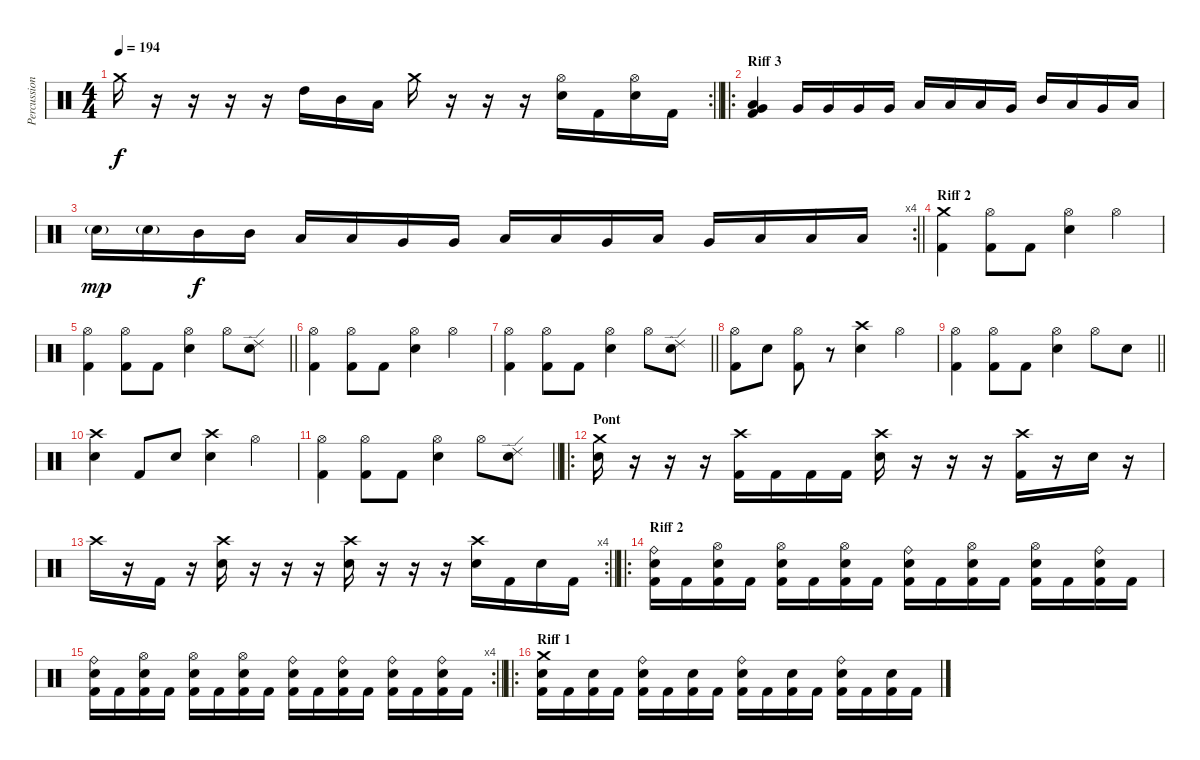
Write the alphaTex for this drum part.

\track ("Percussions" "Percussion") {instrument percussion}
\staff {score}
\articulation defaults
\rc 2
\ts (4 4)
\tempo 194
\clef neutral
\barLineRight lightlight
\ks c "Crash medium (hit)".16{dy f}
r.16 r.16 r.16 r.16 "High Tom (hit)".16 "Mid Tom (hit)".16 "Low Tom (hit)".16 "Crash medium (hit)".16 r.16 r.16 r.16 ("Hi-Hat (open)" "Electric Snare (hit)").16 "Kick (hit) 2".16 ("Hi-Hat (open)" "Electric Snare (hit)").16 "Kick (hit) 2".16 |
\ro
\section ("" "Riff 3")
("Very Low Tom (hit)" "Low Tom (hit)" "Kick (hit) 2").4 "Very Low Tom (hit)".16 "Very Low Tom (hit)".16 "Very Low Tom (hit)".16 "Very Low Tom (hit)".16 "Low Floor Tom (hit)".16 "Low Floor Tom (hit)".16 "Low Floor Tom (hit)".16 "Very Low Tom (hit)".16 "Mid Tom (hit)".16 "Low Tom (hit)".16 "Very Low Tom (hit)".16 "Low Floor Tom (hit)".16 |
\rc 4
\barLineRight lightlight "Electric Snare (hit)"{g}.16{dy mp} "Electric Snare (hit)"{g}.16 "Mid Tom (hit)".16{dy f} "Mid Tom (hit)".16 "Low Tom (hit)".16 "Low Tom (hit)".16 "Very Low Tom (hit)".16 "Very Low Tom (hit)".16 "Low Floor Tom (hit)".16 "Low Floor Tom (hit)".16 "Very Low Tom (hit)".16 "Low Floor Tom (hit)".16 "Very Low Tom (hit)".16 "Low Floor Tom (hit)".16 "Low Floor Tom (hit)".16 "Low Floor Tom (hit)".16
|
\section ("" "Riff 2")
("Crash medium (hit)" "Kick (hit) 2").4 ("Hi-Hat (open)" "Kick (hit) 2").8 "Kick (hit) 2".8 ("Hi-Hat (open)" "Electric Snare (hit)").4 "Hi-Hat (open)".4 |
\barLineRight lightlight
("Hi-Hat (open)" "Kick (hit) 2").4 ("Hi-Hat (open)" "Kick (hit) 2").8 "Kick (hit) 2".8 ("Hi-Hat (open)" "Electric Snare (hit)").4 "Hi-Hat (open)".8 ("Ride (edge) 2" "Electric Snare (hit)").8 |
("Hi-Hat (open)" "Kick (hit) 2").4 ("Hi-Hat (open)" "Kick (hit) 2").8 "Kick (hit) 2".8 ("Hi-Hat (open)" "Electric Snare (hit)").4 "Hi-Hat (open)".4 |
\barLineRight lightlight
("Hi-Hat (open)" "Kick (hit) 2").4 ("Hi-Hat (open)" "Kick (hit) 2").8 "Kick (hit) 2".8 ("Hi-Hat (open)" "Electric Snare (hit)").4 "Hi-Hat (open)".8 ("Ride (edge) 2" "Electric Snare (hit)").8 |
("Hi-Hat (open)" "Kick (hit) 2").8 "Electric Snare (hit)".8 ("Hi-Hat (open)" "Kick (hit) 2").8 r.8 ("Crash high (hit)" "Electric Snare (hit)").4 "Hi-Hat (open)".4 |
\barLineRight lightlight
("Hi-Hat (open)" "Kick (hit) 2").4 ("Hi-Hat (open)" "Kick (hit) 2").8 "Kick (hit) 2".8 ("Hi-Hat (open)" "Electric Snare (hit)").4 "Hi-Hat (open)".8 "Electric Snare (hit)".8 |
("Crash high (hit)" "Electric Snare (hit)").4 "Kick (hit) 2".8 "Electric Snare (hit)".8 ("Crash high (hit)" "Electric Snare (hit)").4 "Hi-Hat (open)".4 |
\barLineRight lightlight
("Hi-Hat (open)" "Kick (hit) 2").4 ("Hi-Hat (open)" "Kick (hit) 2").8 "Kick (hit) 2".8 ("Hi-Hat (open)" "Electric Snare (hit)").4 "Hi-Hat (open)".8 ("Ride (edge) 2" "Electric Snare (hit)").8 |
\ro
\section ("" "Pont")
("Crash medium (hit)" "Electric Snare (hit)").16 r.16 r.16 r.16 ("Crash high (hit)" "Kick (hit) 2").16 "Kick (hit) 2".16 "Kick (hit) 2".16 "Kick (hit) 2".16 ("Crash high (hit)" "Electric Snare (hit)").16 r.16 r.16 r.16 ("Crash high (hit)" "Kick (hit) 2").16 r.16 "Electric Snare (hit)".16 r.16 |
\rc 4
\barLineRight lightlight "Crash high (hit)".16
r.16 "Kick (hit) 2".16 r.16 ("Crash high (hit)" "Electric Snare (hit)").16 r.16 r.16 r.16 ("Crash high (hit)" "Electric Snare (hit)").16 r.16 r.16 r.16 ("Crash high (hit)" "Electric Snare (hit)").16 "Kick (hit) 2".16 "Electric Snare (hit)".16 "Kick (hit) 2".16 |
\ro
\section ("" "Riff 2")
("Ride (bell)" "Electric Snare (hit)" "Kick (hit) 2").16 "Kick (hit) 2".16 ("Hi-Hat (open)" "Electric Snare (hit)" "Kick (hit) 2").16 "Kick (hit) 2".16 ("Hi-Hat (open)" "Electric Snare (hit)" "Kick (hit) 2").16 "Kick (hit) 2".16 ("Hi-Hat (open)" "Electric Snare (hit)" "Kick (hit) 2").16 "Kick (hit) 2".16 ("Ride (bell)" "Electric Snare (hit)" "Kick (hit) 2").16 "Kick (hit) 2".16 ("Hi-Hat (open)" "Electric Snare (hit)" "Kick (hit) 2").16 "Kick (hit) 2".16 ("Hi-Hat (open)" "Electric Snare (hit)" "Kick (hit) 2").16 "Kick (hit) 2".16 ("Ride (bell)" "Electric Snare (hit)" "Kick (hit) 2").16 "Kick (hit) 2".16 |
\rc 4
\barLineRight lightlight
("Ride (bell)" "Electric Snare (hit)" "Kick (hit) 2").16 "Kick (hit) 2".16 ("Hi-Hat (open)" "Electric Snare (hit)" "Kick (hit) 2").16 "Kick (hit) 2".16 ("Hi-Hat (open)" "Electric Snare (hit)" "Kick (hit) 2").16 "Kick (hit) 2".16 ("Hi-Hat (open)" "Electric Snare (hit)" "Kick (hit) 2").16 "Kick (hit) 2".16 ("Ride (bell)" "Electric Snare (hit)" "Kick (hit) 2").16 "Kick (hit) 2".16 ("Ride (bell)" "Electric Snare (hit)" "Kick (hit) 2").16 "Kick (hit) 2".16 ("Ride (bell)" "Electric Snare (hit)" "Kick (hit) 2").16 "Kick (hit) 2".16 ("Ride (bell)" "Electric Snare (hit)" "Kick (hit) 2").16 "Kick (hit) 2".16 |
\ro
\section ("" "Riff 1")
("Crash medium (hit)" "Electric Snare (hit)" "Kick (hit) 2").16 "Kick (hit) 2".16 ("Electric Snare (hit)" "Kick (hit) 2").16 "Kick (hit) 2".16 ("Ride (bell)" "Electric Snare (hit)" "Kick (hit) 2").16 "Kick (hit) 2".16 ("Electric Snare (hit)" "Kick (hit) 2").16 "Kick (hit) 2".16 ("Ride (bell)" "Electric Snare (hit)" "Kick (hit) 2").16 "Kick (hit) 2".16 ("Electric Snare (hit)" "Kick (hit) 2").16 "Kick (hit) 2".16 ("Ride (bell)" "Electric Snare (hit)" "Kick (hit) 2").16 "Kick (hit) 2".16 ("Electric Snare (hit)" "Kick (hit) 2").16 "Kick (hit) 2".16
